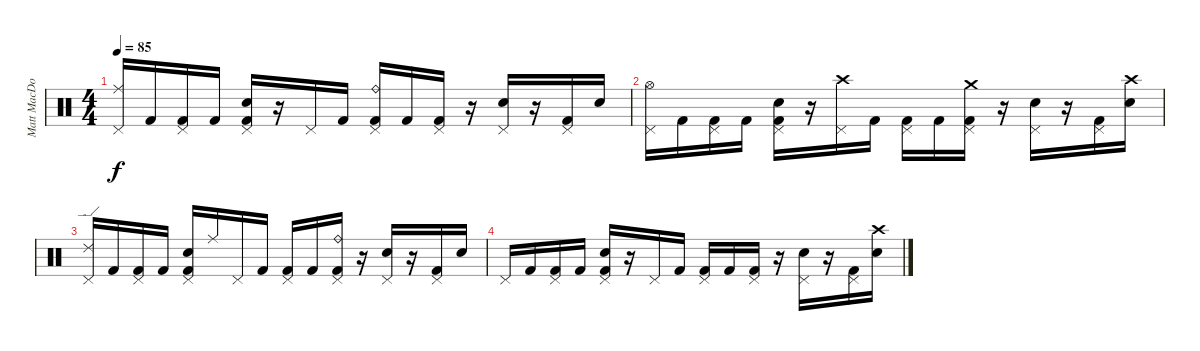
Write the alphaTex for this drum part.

\track ("Matt MacDonough" "Matt MacDo") {instrument percussion}
\staff {score}
\articulation defaults
\ts (4 4)
\tempo 85
\clef neutral
\ks c
("Ride (middle)" "Pedal Hi-Hat (hit)").16{dy f volume 0} "Kick (hit) 2".16 ("Pedal Hi-Hat (hit)" "Kick (hit) 2").16 "Kick (hit) 2".16 ("Electric Snare (hit)" "Pedal Hi-Hat (hit)" "Kick (hit) 2").16 r.16 "Pedal Hi-Hat (hit)".16 "Kick (hit) 2".16 ("Ride (bell)" "Pedal Hi-Hat (hit)" "Kick (hit) 2").16 "Kick (hit) 2".16 ("Pedal Hi-Hat (hit)" "Kick (hit) 2").16 r.16 ("Electric Snare (hit)" "Pedal Hi-Hat (hit)").16 r.16 ("Pedal Hi-Hat (hit)" "Kick (hit) 2").16 "Electric Snare (hit)".16 |
("Hi-Hat (open)" "Pedal Hi-Hat (hit)").16 "Kick (hit) 2".16 ("Pedal Hi-Hat (hit)" "Kick (hit) 2").16 "Kick (hit) 2".16 ("Electric Snare (hit)" "Pedal Hi-Hat (hit)" "Kick (hit) 2").16 r.16 ("Crash high (hit)" "Pedal Hi-Hat (hit)").16 "Kick (hit) 2".16 ("Pedal Hi-Hat (hit)" "Kick (hit) 2").16 "Kick (hit) 2".16 ("Crash medium (hit)" "Pedal Hi-Hat (hit)" "Kick (hit) 2").16 r.16 ("Electric Snare (hit)" "Pedal Hi-Hat (hit)").16 r.16 ("Pedal Hi-Hat (hit)" "Kick (hit) 2").16 ("Crash high (hit)" "Electric Snare (hit)").16 |
("Ride (edge) 2" "Pedal Hi-Hat (hit)").16 "Kick (hit) 2".16 ("Pedal Hi-Hat (hit)" "Kick (hit) 2").16 "Kick (hit) 2".16 ("Electric Snare (hit)" "Pedal Hi-Hat (hit)" "Kick (hit) 2").16 "Ride (middle)".16 "Pedal Hi-Hat (hit)".16 "Kick (hit) 2".16 ("Pedal Hi-Hat (hit)" "Kick (hit) 2").16 "Kick (hit) 2".16 ("Ride (bell)" "Pedal Hi-Hat (hit)" "Kick (hit) 2").16 r.16 ("Electric Snare (hit)" "Pedal Hi-Hat (hit)").16 r.16 ("Pedal Hi-Hat (hit)" "Kick (hit) 2").16 "Electric Snare (hit)".16 |
"Pedal Hi-Hat (hit)".16 "Kick (hit) 2".16 ("Pedal Hi-Hat (hit)" "Kick (hit) 2").16 "Kick (hit) 2".16 ("Electric Snare (hit)" "Pedal Hi-Hat (hit)" "Kick (hit) 2").16 r.16 "Pedal Hi-Hat (hit)".16 "Kick (hit) 2".16 ("Pedal Hi-Hat (hit)" "Kick (hit) 2").16 "Kick (hit) 2".16 ("Pedal Hi-Hat (hit)" "Kick (hit) 2").16 r.16 ("Electric Snare (hit)" "Pedal Hi-Hat (hit)").16 r.16 ("Pedal Hi-Hat (hit)" "Kick (hit) 2").16 ("Crash high (hit)" "Electric Snare (hit)").16
